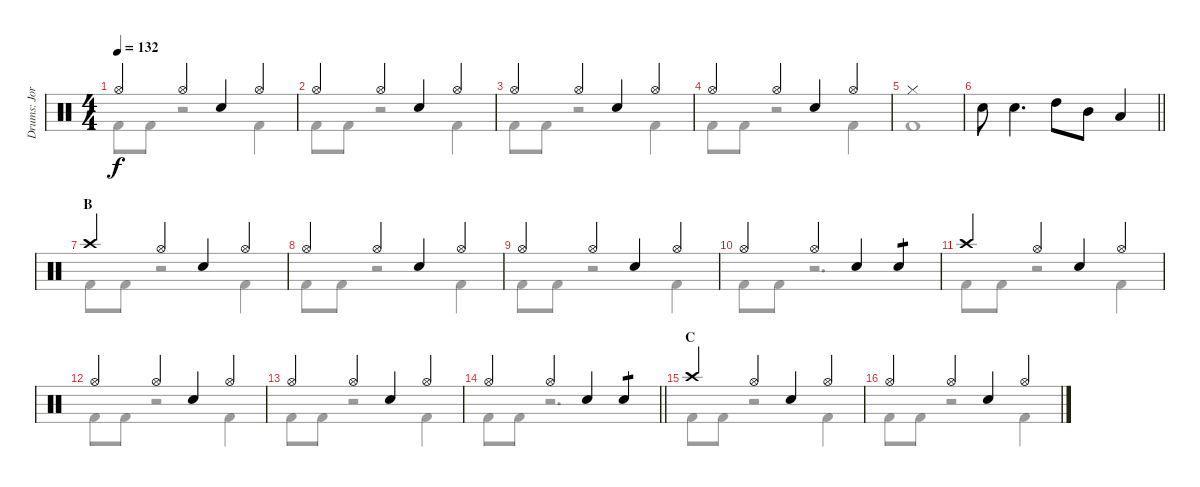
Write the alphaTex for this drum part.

\track ("Drums: Jorg" "Drums: Jor") {instrument percussion}
\staff {score}
\articulation defaults
\voice
\ts (4 4)
\tempo 132
\clef neutral
\ks c "Hi-Hat (open)".4{dy f} "Hi-Hat (open)".4 "Snare (hit) 2".4 "Hi-Hat (open)".4
|
"Hi-Hat (open)".4 "Hi-Hat (open)".4 "Snare (hit) 2".4 "Hi-Hat (open)".4 |
"Hi-Hat (open)".4 "Hi-Hat (open)".4 "Snare (hit) 2".4 "Hi-Hat (open)".4 |
"Hi-Hat (open)".4 "Hi-Hat (open)".4 "Snare (hit) 2".4 "Hi-Hat (open)".4 |
"Hi-Hat (closed)".1 |
\barLineRight lightlight "Electric Snare (hit)".8 "Snare (hit) 2".4{d} "High Tom (hit)".8 "Mid Tom (hit)".8 "Low Tom (hit)".4
|
\section ("" "B")
"Crash high (hit)".4 "Hi-Hat (open)".4 "Snare (hit) 2".4 "Hi-Hat (open)".4 |
"Hi-Hat (open)".4 "Hi-Hat (open)".4 "Snare (hit) 2".4 "Hi-Hat (open)".4 |
"Hi-Hat (open)".4 "Hi-Hat (open)".4 "Snare (hit) 2".4 "Hi-Hat (open)".4 |
"Hi-Hat (open)".4 "Hi-Hat (open)".4 "Snare (hit) 2".4 "Snare (hit) 2".4{tp 1} |
"Crash high (hit)".4 "Hi-Hat (open)".4 "Snare (hit) 2".4 "Hi-Hat (open)".4 |
"Hi-Hat (open)".4 "Hi-Hat (open)".4 "Snare (hit) 2".4 "Hi-Hat (open)".4 |
"Hi-Hat (open)".4 "Hi-Hat (open)".4 "Snare (hit) 2".4 "Hi-Hat (open)".4 |
\barLineRight lightlight "Hi-Hat (open)".4 "Hi-Hat (open)".4 "Snare (hit) 2".4 "Snare (hit) 2".4{tp 1}
|
\section ("" "C")
"Crash high (hit)".4 "Hi-Hat (open)".4 "Snare (hit) 2".4 "Hi-Hat (open)".4 |
"Hi-Hat (open)".4 "Hi-Hat (open)".4 "Snare (hit) 2".4 "Hi-Hat (open)".4
\voice
\clef neutral
\ottava regular
\simile none
\ks c "Kick (hit) 2".8{dy f} "Kick (hit) 2".8
r.2 "Kick (hit) 2".4 |
"Kick (hit) 2".8 "Kick (hit) 2".8 r.2 "Kick (hit) 2".4 |
"Kick (hit) 2".8 "Kick (hit) 2".8 r.2 "Kick (hit) 2".4 |
"Kick (hit) 2".8 "Kick (hit) 2".8 r.2 "Kick (hit) 2".4 |
"Kick (hit) 2".1 |
\barLineRight lightlight
|
"Kick (hit) 2".8 "Kick (hit) 2".8 r.2 "Kick (hit) 2".4 |
"Kick (hit) 2".8 "Kick (hit) 2".8 r.2 "Kick (hit) 2".4 |
"Kick (hit) 2".8 "Kick (hit) 2".8 r.2 "Kick (hit) 2".4 |
"Kick (hit) 2".8 "Kick (hit) 2".8 r.2{d} |
"Kick (hit) 2".8 "Kick (hit) 2".8 r.2 "Kick (hit) 2".4 |
"Kick (hit) 2".8 "Kick (hit) 2".8 r.2 "Kick (hit) 2".4 |
"Kick (hit) 2".8 "Kick (hit) 2".8 r.2 "Kick (hit) 2".4 |
\barLineRight lightlight "Kick (hit) 2".8 "Kick (hit) 2".8
r.2{d} |
"Kick (hit) 2".8 "Kick (hit) 2".8 r.2 "Kick (hit) 2".4 |
"Kick (hit) 2".8 "Kick (hit) 2".8 r.2 "Kick (hit) 2".4
